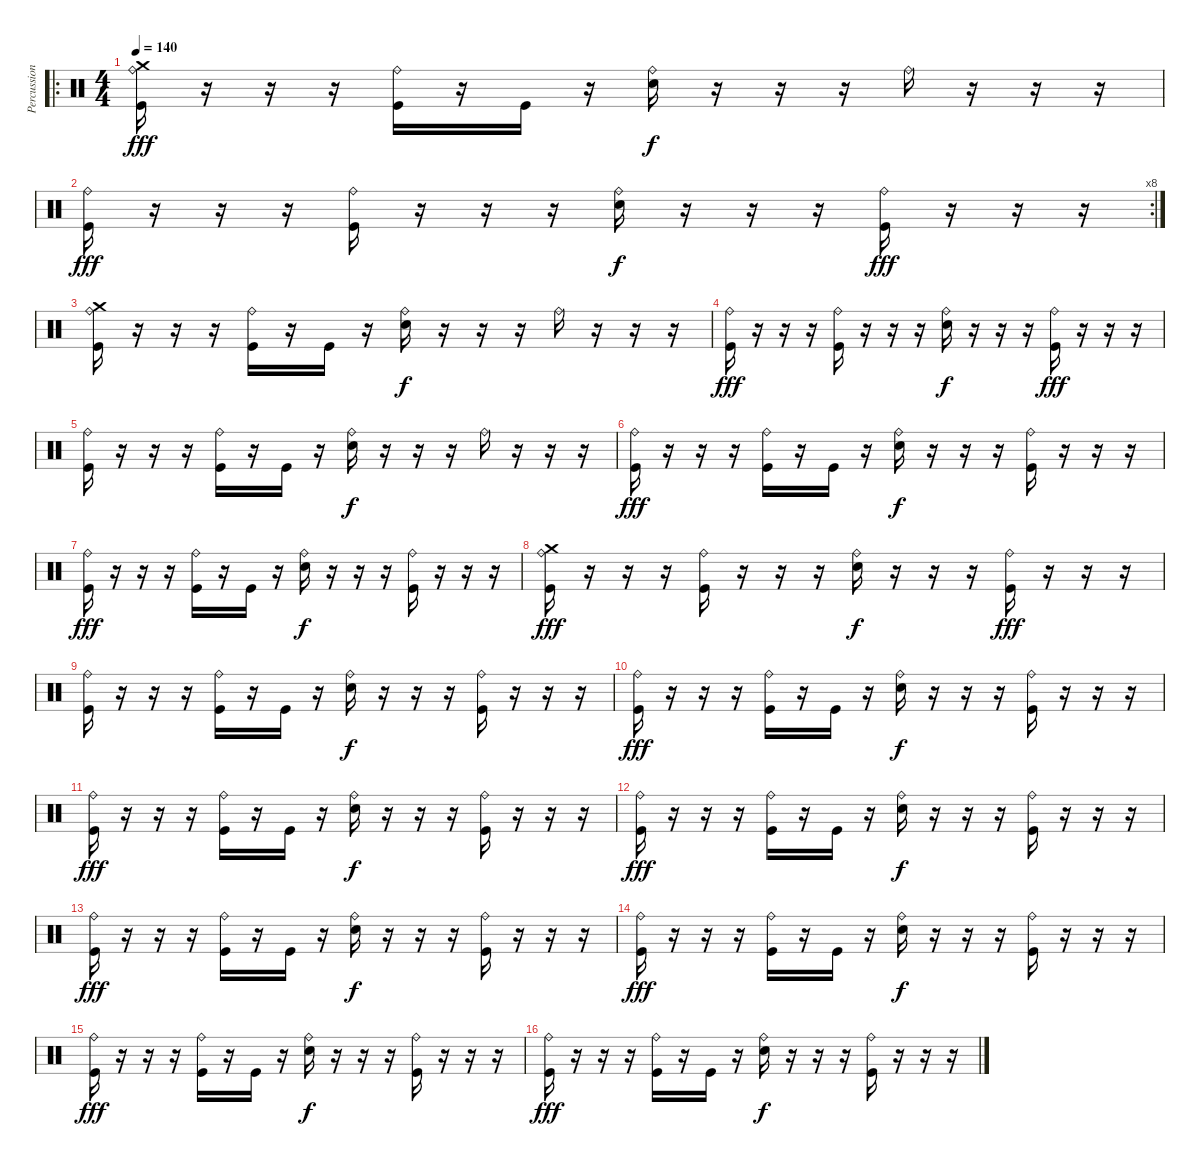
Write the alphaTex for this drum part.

\track ("Percussion" "Percussion") {instrument percussion}
\staff {score}
\articulation defaults
\ro
\ts (4 4)
\tempo 140
\clef neutral
\ks c
("Crash medium (hit)" "Ride (bell)" "Kick (hit)").16{dy fff} r.16 r.16 r.16 ("Ride (bell)" "Kick (hit)").16 r.16 "Kick (hit)".16 r.16 ("Ride (bell)" "Snare (hit) 2").16{dy f} r.16 r.16 r.16 "Ride (bell)".16 r.16 r.16 r.16 |
\rc 8
("Ride (bell)" "Kick (hit)").16{dy fff} r.16 r.16 r.16 ("Ride (bell)" "Kick (hit)").16 r.16 r.16 r.16 ("Ride (bell)" "Snare (hit) 2").16{dy f} r.16 r.16 r.16 ("Ride (bell)" "Kick (hit)").16{dy fff} r.16 r.16 r.16 |
("Crash medium (hit)" "Ride (bell)" "Kick (hit)").16 r.16 r.16 r.16 ("Ride (bell)" "Kick (hit)").16 r.16 "Kick (hit)".16 r.16 ("Ride (bell)" "Snare (hit) 2").16{dy f} r.16 r.16 r.16 "Ride (bell)".16 r.16 r.16 r.16 |
("Ride (bell)" "Kick (hit)").16{dy fff} r.16 r.16 r.16 ("Ride (bell)" "Kick (hit)").16 r.16 r.16 r.16 ("Ride (bell)" "Snare (hit) 2").16{dy f} r.16 r.16 r.16 ("Ride (bell)" "Kick (hit)").16{dy fff} r.16 r.16 r.16 |
("Ride (bell)" "Kick (hit)").16 r.16 r.16 r.16 ("Ride (bell)" "Kick (hit)").16 r.16 "Kick (hit)".16 r.16 ("Ride (bell)" "Snare (hit) 2").16{dy f} r.16 r.16 r.16 "Ride (bell)".16 r.16 r.16 r.16 |
("Ride (bell)" "Kick (hit)").16{dy fff} r.16 r.16 r.16 ("Ride (bell)" "Kick (hit)").16 r.16 "Kick (hit)".16 r.16 ("Ride (bell)" "Snare (hit) 2").16{dy f} r.16 r.16 r.16 ("Ride (bell)" "Kick (hit)").16 r.16 r.16 r.16 |
("Ride (bell)" "Kick (hit)").16{dy fff} r.16 r.16 r.16 ("Ride (bell)" "Kick (hit)").16 r.16 "Kick (hit)".16 r.16 ("Ride (bell)" "Snare (hit) 2").16{dy f} r.16 r.16 r.16 ("Ride (bell)" "Kick (hit)").16 r.16 r.16 r.16 |
("Crash medium (hit)" "Ride (bell)" "Kick (hit)").16{dy fff} r.16 r.16 r.16 ("Ride (bell)" "Kick (hit)").16 r.16 r.16 r.16 ("Ride (bell)" "Snare (hit) 2").16{dy f} r.16 r.16 r.16 ("Ride (bell)" "Kick (hit)").16{dy fff} r.16 r.16 r.16 |
("Ride (bell)" "Kick (hit)").16 r.16 r.16 r.16 ("Ride (bell)" "Kick (hit)").16 r.16 "Kick (hit)".16 r.16 ("Ride (bell)" "Snare (hit) 2").16{dy f} r.16 r.16 r.16 ("Ride (bell)" "Kick (hit)").16 r.16 r.16 r.16 |
("Ride (bell)" "Kick (hit)").16{dy fff} r.16 r.16 r.16 ("Ride (bell)" "Kick (hit)").16 r.16 "Kick (hit)".16 r.16 ("Ride (bell)" "Snare (hit) 2").16{dy f} r.16 r.16 r.16 ("Ride (bell)" "Kick (hit)").16 r.16 r.16 r.16 |
("Ride (bell)" "Kick (hit)").16{dy fff} r.16 r.16 r.16 ("Ride (bell)" "Kick (hit)").16 r.16 "Kick (hit)".16 r.16 ("Ride (bell)" "Snare (hit) 2").16{dy f} r.16 r.16 r.16 ("Ride (bell)" "Kick (hit)").16 r.16 r.16 r.16 |
("Ride (bell)" "Kick (hit)").16{dy fff} r.16 r.16 r.16 ("Ride (bell)" "Kick (hit)").16 r.16 "Kick (hit)".16 r.16 ("Ride (bell)" "Snare (hit) 2").16{dy f} r.16 r.16 r.16 ("Ride (bell)" "Kick (hit)").16 r.16 r.16 r.16 |
("Ride (bell)" "Kick (hit)").16{dy fff} r.16 r.16 r.16 ("Ride (bell)" "Kick (hit)").16 r.16 "Kick (hit)".16 r.16 ("Ride (bell)" "Snare (hit) 2").16{dy f} r.16 r.16 r.16 ("Ride (bell)" "Kick (hit)").16 r.16 r.16 r.16 |
("Ride (bell)" "Kick (hit)").16{dy fff} r.16 r.16 r.16 ("Ride (bell)" "Kick (hit)").16 r.16 "Kick (hit)".16 r.16 ("Ride (bell)" "Snare (hit) 2").16{dy f} r.16 r.16 r.16 ("Ride (bell)" "Kick (hit)").16 r.16 r.16 r.16 |
("Ride (bell)" "Kick (hit)").16{dy fff} r.16 r.16 r.16 ("Ride (bell)" "Kick (hit)").16 r.16 "Kick (hit)".16 r.16 ("Ride (bell)" "Snare (hit) 2").16{dy f} r.16 r.16 r.16 ("Ride (bell)" "Kick (hit)").16 r.16 r.16 r.16 |
("Ride (bell)" "Kick (hit)").16{dy fff} r.16 r.16 r.16 ("Ride (bell)" "Kick (hit)").16 r.16 "Kick (hit)".16 r.16 ("Ride (bell)" "Snare (hit) 2").16{dy f} r.16 r.16 r.16 ("Ride (bell)" "Kick (hit)").16 r.16 r.16 r.16
